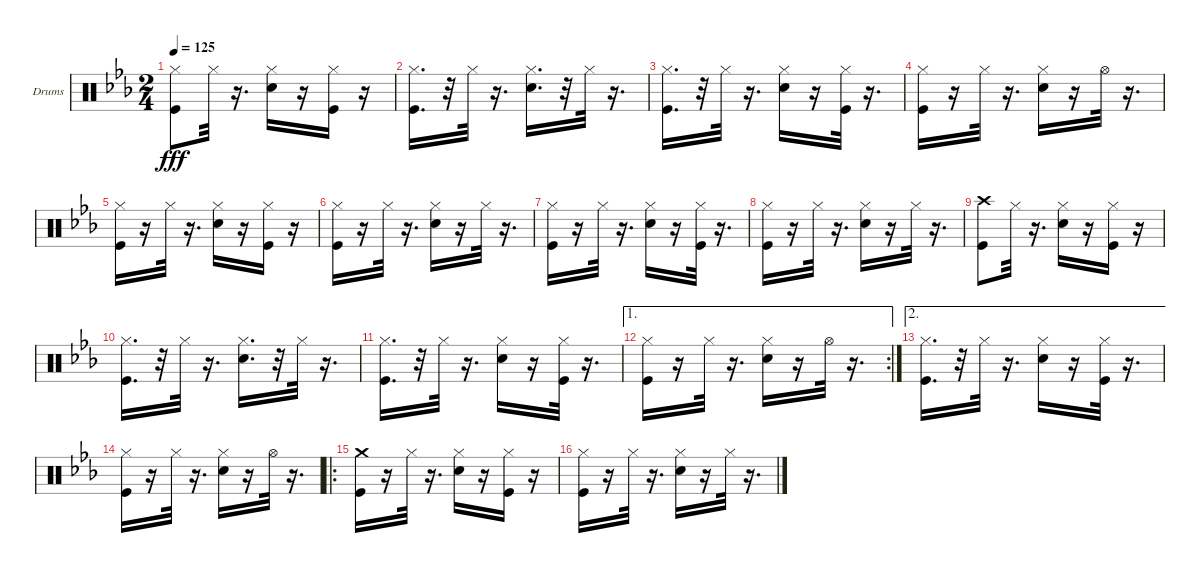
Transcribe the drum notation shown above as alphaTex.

\bracketExtendMode groupsimilarinstruments
\firstSystemTrackNameOrientation horizontal
\otherSystemsTrackNameOrientation horizontal
\track ("Drumkit" "Drums") {instrument percussion}
\staff {score}
\articulation defaults
\ts (2 4)
\tempo 125
\clef neutral
\ks cminor
("Kick (hit)" "Hi-Hat (closed)").8{dy fff} "Hi-Hat (closed)".32 r.16{d} ("Snare (hit) 2" "Hi-Hat (closed)").16 r.16 ("Kick (hit)" "Hi-Hat (closed)").16 r.16 |
("Kick (hit)" "Hi-Hat (closed)").16{d} r.32 "Hi-Hat (closed)".32 r.16{d} ("Snare (hit) 2" "Hi-Hat (closed)").16{d} r.32 "Hi-Hat (closed)".32 r.16{d} |
("Kick (hit)" "Hi-Hat (closed)").16{d} r.32 "Hi-Hat (closed)".32 r.16{d} ("Snare (hit) 2" "Hi-Hat (closed)").16 r.16 ("Kick (hit)" "Hi-Hat (closed)").32 r.16{d} |
("Kick (hit)" "Hi-Hat (closed)").16 r.16 "Hi-Hat (closed)".32 r.16{d} ("Snare (hit) 2" "Hi-Hat (closed)").16 r.16 "Hi-Hat (open)".32 r.16{d} |
("Kick (hit)" "Hi-Hat (closed)").16 r.16 "Hi-Hat (closed)".32 r.16{d} ("Snare (hit) 2" "Hi-Hat (closed)").16 r.16 ("Kick (hit)" "Hi-Hat (closed)").16 r.16 |
("Kick (hit)" "Hi-Hat (closed)").16 r.16 "Hi-Hat (closed)".32 r.16{d} ("Snare (hit) 2" "Hi-Hat (closed)").16 r.16 "Hi-Hat (closed)".32 r.16{d} |
("Kick (hit)" "Hi-Hat (closed)").16 r.16 "Hi-Hat (closed)".32 r.16{d} ("Snare (hit) 2" "Hi-Hat (closed)").16 r.16 ("Kick (hit)" "Hi-Hat (closed)").32 r.16{d} |
("Kick (hit)" "Hi-Hat (closed)").16 r.16 "Hi-Hat (closed)".32 r.16{d} ("Snare (hit) 2" "Hi-Hat (closed)").16 r.16 "Hi-Hat (closed)".32 r.16{d} |
("Kick (hit)" "Crash high (hit)").8 "Hi-Hat (closed)".32 r.16{d} ("Snare (hit) 2" "Hi-Hat (closed)").16 r.16 ("Kick (hit)" "Hi-Hat (closed)").16 r.16 |
("Kick (hit)" "Hi-Hat (closed)").16{d} r.32 "Hi-Hat (closed)".32 r.16{d} ("Snare (hit) 2" "Hi-Hat (closed)").16{d} r.32 "Hi-Hat (closed)".32 r.16{d} |
("Kick (hit)" "Hi-Hat (closed)").16{d} r.32 "Hi-Hat (closed)".32 r.16{d} ("Snare (hit) 2" "Hi-Hat (closed)").16 r.16 ("Kick (hit)" "Hi-Hat (closed)").32 r.16{d} |
\ae 1
\rc 2
("Kick (hit)" "Hi-Hat (closed)").16 r.16 "Hi-Hat (closed)".32 r.16{d} ("Snare (hit) 2" "Hi-Hat (closed)").16 r.16 "Hi-Hat (open)".32 r.16{d} |
\ae 2
("Kick (hit)" "Hi-Hat (closed)").16{d} r.32 "Hi-Hat (closed)".32 r.16{d} ("Snare (hit) 2" "Hi-Hat (closed)").16 r.16 ("Kick (hit)" "Hi-Hat (closed)").32 r.16{d} |
("Kick (hit)" "Hi-Hat (closed)").16 r.16 "Hi-Hat (closed)".32 r.16{d} ("Snare (hit) 2" "Hi-Hat (closed)").16 r.16 "Hi-Hat (open)".32 r.16{d} |
\ro
("Kick (hit)" "Crash medium (hit)").16 r.16 "Hi-Hat (closed)".32 r.16{d} ("Snare (hit) 2" "Hi-Hat (closed)").16 r.16 ("Kick (hit)" "Hi-Hat (closed)").16 r.16 |
("Kick (hit)" "Hi-Hat (closed)").16 r.16 "Hi-Hat (closed)".32 r.16{d} ("Snare (hit) 2" "Hi-Hat (closed)").16 r.16 "Hi-Hat (closed)".32 r.16{d}
